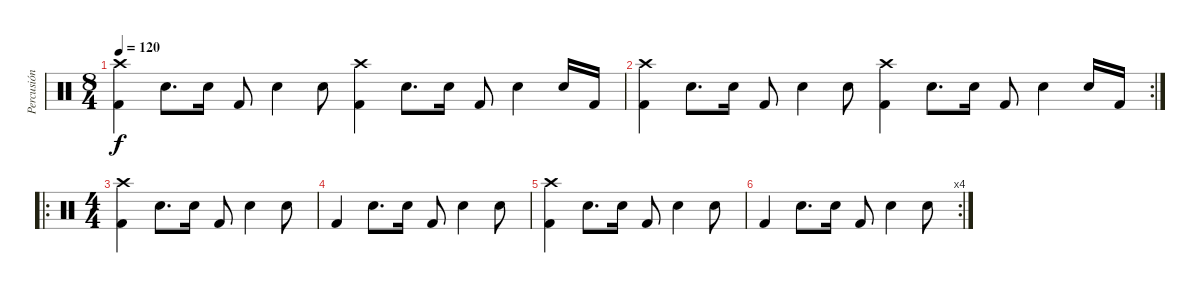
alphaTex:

\track ("Percusión" "Percusión") {instrument percussion}
\staff {score}
\articulation defaults
\ts (8 4)
\tempo 120
\clef neutral
\ks c
("Crash high (hit)" "Kick (hit) 2").4{dy f} "Snare (hit) 2".8{d} "Snare (hit) 2".16 "Kick (hit) 2".8 "Snare (hit) 2".4 "Snare (hit) 2".8 ("Crash high (hit)" "Kick (hit) 2").4 "Snare (hit) 2".8{d} "Snare (hit) 2".16 "Kick (hit) 2".8 "Snare (hit) 2".4 "Snare (hit) 2".16 "Kick (hit) 2".16 |
\rc 2
("Crash high (hit)" "Kick (hit) 2").4 "Snare (hit) 2".8{d} "Snare (hit) 2".16 "Kick (hit) 2".8 "Snare (hit) 2".4 "Snare (hit) 2".8 ("Crash high (hit)" "Kick (hit) 2").4 "Snare (hit) 2".8{d} "Snare (hit) 2".16 "Kick (hit) 2".8 "Snare (hit) 2".4 "Snare (hit) 2".16 "Kick (hit) 2".16 |
\ro
\ts (4 4)
("Crash high (hit)" "Kick (hit) 2").4 "Snare (hit) 2".8{d} "Snare (hit) 2".16 "Kick (hit) 2".8 "Snare (hit) 2".4 "Snare (hit) 2".8 |
"Kick (hit) 2".4 "Snare (hit) 2".8{d} "Snare (hit) 2".16 "Kick (hit) 2".8 "Snare (hit) 2".4 "Snare (hit) 2".8 |
("Crash high (hit)" "Kick (hit) 2").4 "Snare (hit) 2".8{d} "Snare (hit) 2".16 "Kick (hit) 2".8 "Snare (hit) 2".4 "Snare (hit) 2".8 |
\rc 4 "Kick (hit) 2".4 "Snare (hit) 2".8{d} "Snare (hit) 2".16 "Kick (hit) 2".8 "Snare (hit) 2".4 "Snare (hit) 2".8
